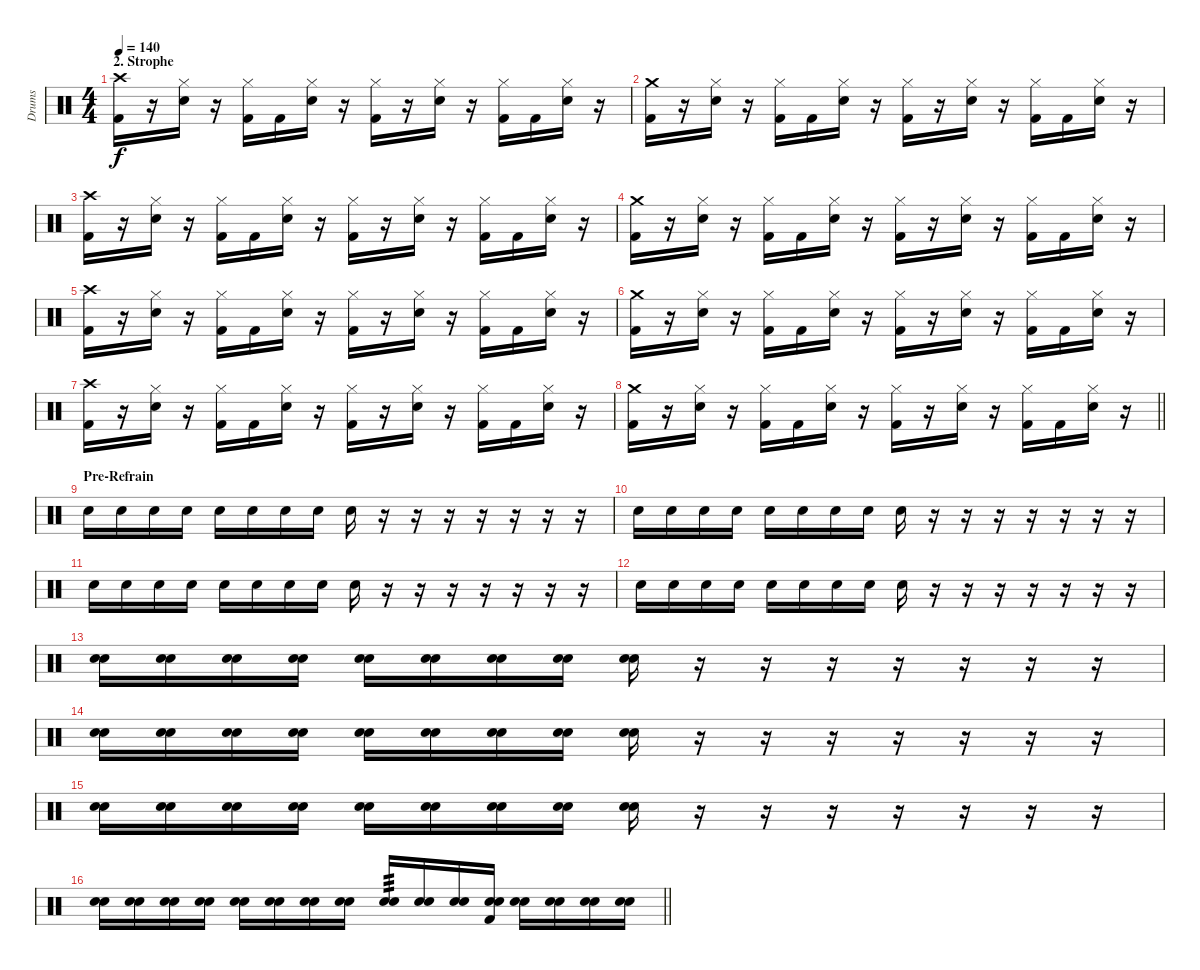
\track ("Drums" "Drums") {instrument percussion}
\staff {score}
\articulation defaults
\ts (4 4)
\section ("" "2. Strophe")
\tempo 140
\clef neutral
\ks c
("Crash high (hit)" "Kick (hit) 2").16{dy f} r.16 ("Hi-Hat (closed)" "Electric Snare (hit)").16 r.16 ("Hi-Hat (closed)" "Kick (hit) 2").16 "Kick (hit) 2".16 ("Hi-Hat (closed)" "Electric Snare (hit)").16 r.16 ("Hi-Hat (closed)" "Kick (hit) 2").16 r.16 ("Hi-Hat (closed)" "Electric Snare (hit)").16 r.16 ("Hi-Hat (closed)" "Kick (hit) 2").16 "Kick (hit) 2".16 ("Hi-Hat (closed)" "Electric Snare (hit)").16 r.16 |
("Crash medium (hit)" "Kick (hit) 2").16 r.16 ("Hi-Hat (closed)" "Electric Snare (hit)").16 r.16 ("Hi-Hat (closed)" "Kick (hit) 2").16 "Kick (hit) 2".16 ("Hi-Hat (closed)" "Electric Snare (hit)").16 r.16 ("Hi-Hat (closed)" "Kick (hit) 2").16 r.16 ("Hi-Hat (closed)" "Electric Snare (hit)").16 r.16 ("Hi-Hat (closed)" "Kick (hit) 2").16 "Kick (hit) 2".16 ("Hi-Hat (closed)" "Electric Snare (hit)").16 r.16 |
("Crash high (hit)" "Kick (hit) 2").16 r.16 ("Hi-Hat (closed)" "Electric Snare (hit)").16 r.16 ("Hi-Hat (closed)" "Kick (hit) 2").16 "Kick (hit) 2".16 ("Hi-Hat (closed)" "Electric Snare (hit)").16 r.16 ("Hi-Hat (closed)" "Kick (hit) 2").16 r.16 ("Hi-Hat (closed)" "Electric Snare (hit)").16 r.16 ("Hi-Hat (closed)" "Kick (hit) 2").16 "Kick (hit) 2".16 ("Hi-Hat (closed)" "Electric Snare (hit)").16 r.16 |
("Crash medium (hit)" "Kick (hit) 2").16 r.16 ("Hi-Hat (closed)" "Electric Snare (hit)").16 r.16 ("Hi-Hat (closed)" "Kick (hit) 2").16 "Kick (hit) 2".16 ("Hi-Hat (closed)" "Electric Snare (hit)").16 r.16 ("Hi-Hat (closed)" "Kick (hit) 2").16 r.16 ("Hi-Hat (closed)" "Electric Snare (hit)").16 r.16 ("Hi-Hat (closed)" "Kick (hit) 2").16 "Kick (hit) 2".16 ("Hi-Hat (closed)" "Electric Snare (hit)").16 r.16 |
("Crash high (hit)" "Kick (hit) 2").16 r.16 ("Hi-Hat (closed)" "Electric Snare (hit)").16 r.16 ("Hi-Hat (closed)" "Kick (hit) 2").16 "Kick (hit) 2".16 ("Hi-Hat (closed)" "Electric Snare (hit)").16 r.16 ("Hi-Hat (closed)" "Kick (hit) 2").16 r.16 ("Hi-Hat (closed)" "Electric Snare (hit)").16 r.16 ("Hi-Hat (closed)" "Kick (hit) 2").16 "Kick (hit) 2".16 ("Hi-Hat (closed)" "Electric Snare (hit)").16 r.16 |
("Crash medium (hit)" "Kick (hit) 2").16 r.16 ("Hi-Hat (closed)" "Electric Snare (hit)").16 r.16 ("Hi-Hat (closed)" "Kick (hit) 2").16 "Kick (hit) 2".16 ("Hi-Hat (closed)" "Electric Snare (hit)").16 r.16 ("Hi-Hat (closed)" "Kick (hit) 2").16 r.16 ("Hi-Hat (closed)" "Electric Snare (hit)").16 r.16 ("Hi-Hat (closed)" "Kick (hit) 2").16 "Kick (hit) 2".16 ("Hi-Hat (closed)" "Electric Snare (hit)").16 r.16 |
("Crash high (hit)" "Kick (hit) 2").16 r.16 ("Hi-Hat (closed)" "Electric Snare (hit)").16 r.16 ("Hi-Hat (closed)" "Kick (hit) 2").16 "Kick (hit) 2".16 ("Hi-Hat (closed)" "Electric Snare (hit)").16 r.16 ("Hi-Hat (closed)" "Kick (hit) 2").16 r.16 ("Hi-Hat (closed)" "Electric Snare (hit)").16 r.16 ("Hi-Hat (closed)" "Kick (hit) 2").16 "Kick (hit) 2".16 ("Hi-Hat (closed)" "Electric Snare (hit)").16 r.16 |
\barLineRight lightlight
("Crash medium (hit)" "Kick (hit) 2").16 r.16 ("Hi-Hat (closed)" "Electric Snare (hit)").16 r.16 ("Hi-Hat (closed)" "Kick (hit) 2").16 "Kick (hit) 2".16 ("Hi-Hat (closed)" "Electric Snare (hit)").16 r.16 ("Hi-Hat (closed)" "Kick (hit) 2").16 r.16 ("Hi-Hat (closed)" "Electric Snare (hit)").16 r.16 ("Hi-Hat (closed)" "Kick (hit) 2").16 "Kick (hit) 2".16 ("Hi-Hat (closed)" "Electric Snare (hit)").16 r.16 |
\section ("" "Pre-Refrain")
"Snare (hit) 2".16 "Snare (hit) 2".16 "Snare (hit) 2".16 "Snare (hit) 2".16 "Snare (hit) 2".16 "Snare (hit) 2".16 "Snare (hit) 2".16 "Snare (hit) 2".16 "Snare (hit) 2".16 r.16 r.16 r.16 r.16 r.16 r.16 r.16 |
"Snare (hit) 2".16 "Snare (hit) 2".16 "Snare (hit) 2".16 "Snare (hit) 2".16 "Snare (hit) 2".16 "Snare (hit) 2".16 "Snare (hit) 2".16 "Snare (hit) 2".16 "Snare (hit) 2".16 r.16 r.16 r.16 r.16 r.16 r.16 r.16 |
"Snare (hit) 2".16 "Snare (hit) 2".16 "Snare (hit) 2".16 "Snare (hit) 2".16 "Snare (hit) 2".16 "Snare (hit) 2".16 "Snare (hit) 2".16 "Snare (hit) 2".16 "Snare (hit) 2".16 r.16 r.16 r.16 r.16 r.16 r.16 r.16 |
"Snare (hit) 2".16 "Snare (hit) 2".16 "Snare (hit) 2".16 "Snare (hit) 2".16 "Snare (hit) 2".16 "Snare (hit) 2".16 "Snare (hit) 2".16 "Snare (hit) 2".16 "Snare (hit) 2".16 r.16 r.16 r.16 r.16 r.16 r.16 r.16 |
("Electric Snare (hit)" "Snare (hit) 2").16{volume 16} ("Electric Snare (hit)" "Snare (hit) 2").16 ("Electric Snare (hit)" "Snare (hit) 2").16 ("Electric Snare (hit)" "Snare (hit) 2").16 ("Electric Snare (hit)" "Snare (hit) 2").16 ("Electric Snare (hit)" "Snare (hit) 2").16 ("Electric Snare (hit)" "Snare (hit) 2").16 ("Electric Snare (hit)" "Snare (hit) 2").16 ("Electric Snare (hit)" "Snare (hit) 2").16 r.16 r.16 r.16 r.16 r.16 r.16 r.16 |
("Electric Snare (hit)" "Snare (hit) 2").16{volume 16} ("Electric Snare (hit)" "Snare (hit) 2").16 ("Electric Snare (hit)" "Snare (hit) 2").16 ("Electric Snare (hit)" "Snare (hit) 2").16 ("Electric Snare (hit)" "Snare (hit) 2").16 ("Electric Snare (hit)" "Snare (hit) 2").16 ("Electric Snare (hit)" "Snare (hit) 2").16 ("Electric Snare (hit)" "Snare (hit) 2").16 ("Electric Snare (hit)" "Snare (hit) 2").16 r.16 r.16 r.16 r.16 r.16 r.16 r.16 |
("Electric Snare (hit)" "Snare (hit) 2").16{volume 16} ("Electric Snare (hit)" "Snare (hit) 2").16 ("Electric Snare (hit)" "Snare (hit) 2").16 ("Electric Snare (hit)" "Snare (hit) 2").16 ("Electric Snare (hit)" "Snare (hit) 2").16 ("Electric Snare (hit)" "Snare (hit) 2").16 ("Electric Snare (hit)" "Snare (hit) 2").16 ("Electric Snare (hit)" "Snare (hit) 2").16 ("Electric Snare (hit)" "Snare (hit) 2").16 r.16 r.16 r.16 r.16 r.16 r.16 r.16 |
\barLineRight lightlight
("Electric Snare (hit)" "Snare (hit) 2").16 ("Electric Snare (hit)" "Snare (hit) 2").16 ("Electric Snare (hit)" "Snare (hit) 2").16 ("Electric Snare (hit)" "Snare (hit) 2").16 ("Electric Snare (hit)" "Snare (hit) 2").16 ("Electric Snare (hit)" "Snare (hit) 2").16 ("Electric Snare (hit)" "Snare (hit) 2").16 ("Electric Snare (hit)" "Snare (hit) 2").16 ("Electric Snare (hit)" "Snare (hit) 2").16{tp 3} ("Electric Snare (hit)" "Snare (hit) 2").16 ("Electric Snare (hit)" "Snare (hit) 2").16 ("Electric Snare (hit)" "Snare (hit) 2" "Kick (hit) 2").16 ("Electric Snare (hit)" "Snare (hit) 2").16 ("Electric Snare (hit)" "Snare (hit) 2").16 ("Electric Snare (hit)" "Snare (hit) 2").16 ("Electric Snare (hit)" "Snare (hit) 2").16
